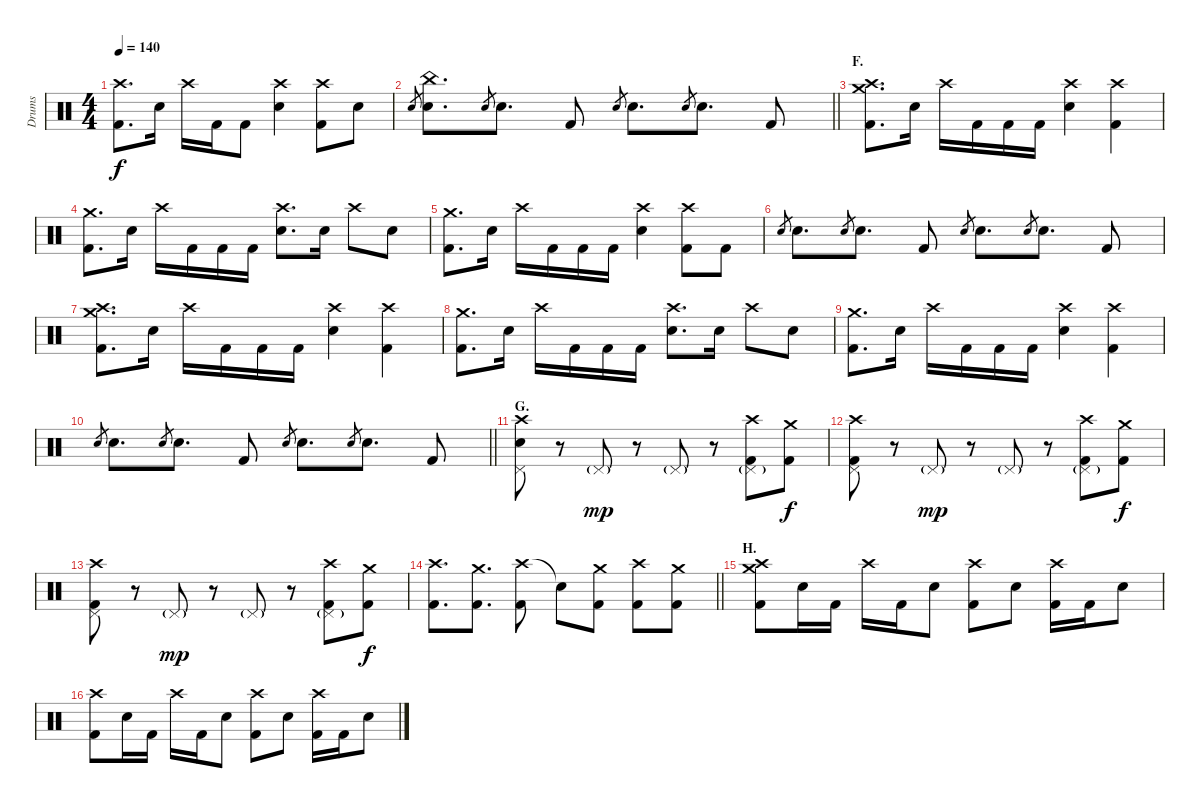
\track ("Drums" "Drums") {instrument percussion}
\staff {score}
\articulation defaults
\ts (4 4)
\tempo 140
\clef neutral
\ks c
("Crash high (hit)" "Kick (hit) 2").8{d dy f} "Electric Snare (hit)".16 "Crash high (hit)".16 "Kick (hit) 2".16 "Kick (hit) 2".8 ("Crash high (hit)" "Electric Snare (hit)").4 ("Crash high (hit)" "Kick (hit) 2").8 "Electric Snare (hit)".8 |
\barLineRight lightlight "Electric Snare (hit)".8{gr}
("China (hit)" "Electric Snare (hit)").8{d} "Electric Snare (hit)".8{gr} "Electric Snare (hit)".8{d} "Kick (hit) 2".8 "Electric Snare (hit)".8{gr} "Electric Snare (hit)".8{d} "Electric Snare (hit)".8{gr} "Electric Snare (hit)".8{d} "Kick (hit) 2".8 |
\section ("" "F.")
("Crash medium (hit)" "Crash high (hit)" "Kick (hit) 2").8{d} "Electric Snare (hit)".16 "Crash high (hit)".16 "Kick (hit) 2".16 "Kick (hit) 2".16 "Kick (hit) 2".16 ("Crash high (hit)" "Electric Snare (hit)").4 ("Crash high (hit)" "Kick (hit) 2").4 |
("Crash medium (hit)" "Kick (hit) 2").8{d} "Electric Snare (hit)".16 "Crash high (hit)".16 "Kick (hit) 2".16 "Kick (hit) 2".16 "Kick (hit) 2".16 ("Crash high (hit)" "Electric Snare (hit)").8{d} "Electric Snare (hit)".16 "Crash high (hit)".8 "Electric Snare (hit)".8 |
("Crash medium (hit)" "Kick (hit) 2").8{d} "Electric Snare (hit)".16 "Crash high (hit)".16 "Kick (hit) 2".16 "Kick (hit) 2".16 "Kick (hit) 2".16 ("Crash high (hit)" "Electric Snare (hit)").4 ("Crash high (hit)" "Kick (hit) 2").8 "Kick (hit) 2".8 |
"Electric Snare (hit)".8{gr} "Electric Snare (hit)".8{d} "Electric Snare (hit)".8{gr} "Electric Snare (hit)".8{d} "Kick (hit) 2".8 "Electric Snare (hit)".8{gr} "Electric Snare (hit)".8{d} "Electric Snare (hit)".8{gr} "Electric Snare (hit)".8{d} "Kick (hit) 2".8 |
("Crash medium (hit)" "Crash high (hit)" "Kick (hit) 2").8{d} "Electric Snare (hit)".16 "Crash high (hit)".16 "Kick (hit) 2".16 "Kick (hit) 2".16 "Kick (hit) 2".16 ("Crash high (hit)" "Electric Snare (hit)").4 ("Crash high (hit)" "Kick (hit) 2").4 |
("Crash medium (hit)" "Kick (hit) 2").8{d} "Electric Snare (hit)".16 "Crash high (hit)".16 "Kick (hit) 2".16 "Kick (hit) 2".16 "Kick (hit) 2".16 ("Crash high (hit)" "Electric Snare (hit)").8{d} "Electric Snare (hit)".16 "Crash high (hit)".8 "Electric Snare (hit)".8 |
("Crash medium (hit)" "Kick (hit) 2").8{d} "Electric Snare (hit)".16 "Crash high (hit)".16 "Kick (hit) 2".16 "Kick (hit) 2".16 "Kick (hit) 2".16 ("Crash high (hit)" "Electric Snare (hit)").4 ("Crash high (hit)" "Kick (hit) 2").4 |
\barLineRight lightlight "Electric Snare (hit)".8{gr} "Electric Snare (hit)".8{d} "Electric Snare (hit)".8{gr} "Electric Snare (hit)".8{d} "Kick (hit) 2".8 "Electric Snare (hit)".8{gr} "Electric Snare (hit)".8{d} "Electric Snare (hit)".8{gr} "Electric Snare (hit)".8{d} "Kick (hit) 2".8
|
\section ("" "G.")
("Crash high (hit)" "Pedal Hi-Hat (hit)" "Electric Snare (hit)").8 r.8 "Pedal Hi-Hat (hit)"{g}.8{dy mp} r.8 "Pedal Hi-Hat (hit)"{g}.8 r.8 ("Crash high (hit)" "Pedal Hi-Hat (hit)"{g} "Kick (hit) 2").8 ("Crash medium (hit)" "Kick (hit) 2").8{dy f} |
("Crash high (hit)" "Pedal Hi-Hat (hit)" "Kick (hit) 2").8 r.8 "Pedal Hi-Hat (hit)"{g}.8{dy mp} r.8 "Pedal Hi-Hat (hit)"{g}.8 r.8 ("Crash high (hit)" "Pedal Hi-Hat (hit)"{g} "Kick (hit) 2").8 ("Crash medium (hit)" "Kick (hit) 2").8{dy f} |
("Crash high (hit)" "Pedal Hi-Hat (hit)" "Kick (hit) 2").8 r.8 "Pedal Hi-Hat (hit)"{g}.8{dy mp} r.8 "Pedal Hi-Hat (hit)"{g}.8 r.8 ("Crash high (hit)" "Pedal Hi-Hat (hit)"{g} "Kick (hit) 2").8 ("Crash medium (hit)" "Kick (hit) 2").8{dy f} |
\barLineRight lightlight
("Crash high (hit)" "Kick (hit) 2").8{d} ("Crash medium (hit)" "Kick (hit) 2").8{d} ("Crash high (hit)" "Kick (hit) 2").8 "Snare (hit)"{t}.8 ("Crash medium (hit)" "Kick (hit) 2").8 ("Crash high (hit)" "Kick (hit) 2").8 ("Crash medium (hit)" "Kick (hit) 2").8 |
\section ("" "H.")
("Crash medium (hit)" "Crash high (hit)" "Kick (hit) 2").8 "Electric Snare (hit)".16 "Kick (hit) 2".16 "Crash high (hit)".16 "Kick (hit) 2".16 "Electric Snare (hit)".8 ("Crash high (hit)" "Kick (hit) 2").8 "Electric Snare (hit)".8 ("Crash high (hit)" "Kick (hit) 2").16 "Kick (hit) 2".16 "Electric Snare (hit)".8 |
("Crash high (hit)" "Kick (hit) 2").8 "Electric Snare (hit)".16 "Kick (hit) 2".16 "Crash high (hit)".16 "Kick (hit) 2".16 "Electric Snare (hit)".8 ("Crash high (hit)" "Kick (hit) 2").8 "Electric Snare (hit)".8 ("Crash high (hit)" "Kick (hit) 2").16 "Kick (hit) 2".16 "Electric Snare (hit)".8
